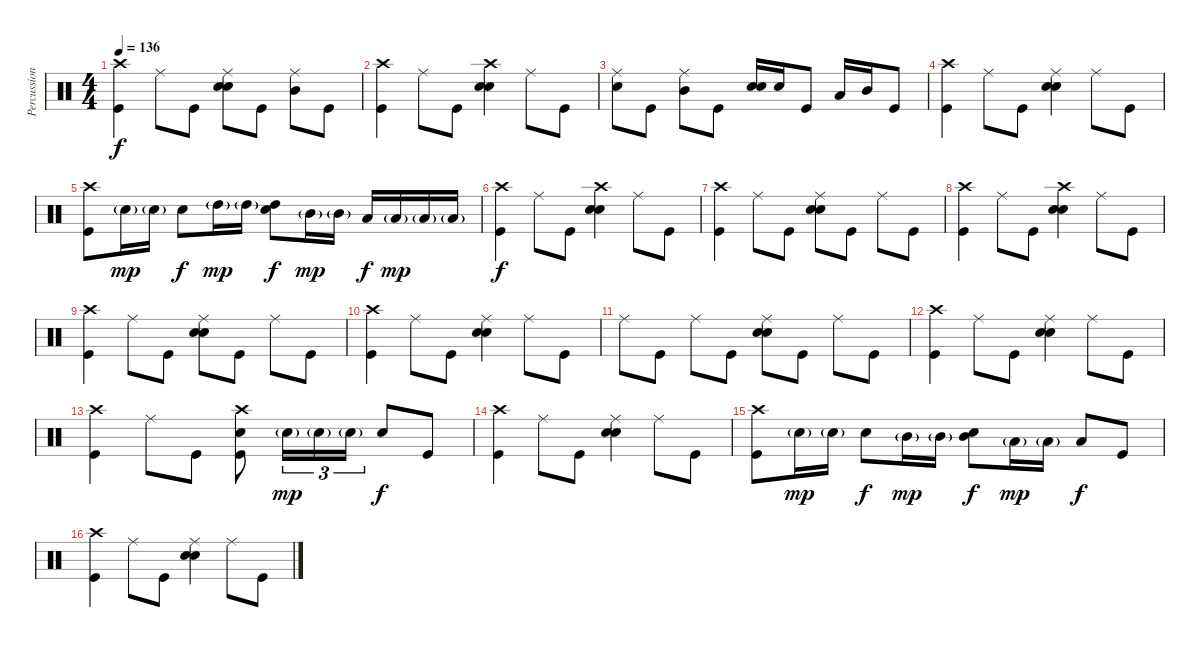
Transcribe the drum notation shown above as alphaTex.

\track ("Percussion" "Percussion") {instrument percussion}
\staff {score}
\articulation defaults
\ts (4 4)
\tempo 136
\clef neutral
\ks c
("Crash high (hit)" "Kick (hit)").4{dy f} "Ride (middle)".8 "Kick (hit)".8 ("Hand Clap (hit)" "Ride (middle)" "Snare (hit) 2").8 "Kick (hit)".8 ("Ride (middle)" "Mid Tom (hit)").8 "Kick (hit)".8 |
("Crash high (hit)" "Kick (hit)").4 "Ride (middle)".8 "Kick (hit)".8 ("Hand Clap (hit)" "Crash high (hit)" "Snare (hit) 2").4 "Ride (middle)".8 "Kick (hit)".8 |
("Ride (middle)" "Snare (hit) 2").8 "Kick (hit)".8 ("Ride (middle)" "Mid Tom (hit)").8 "Kick (hit)".8 ("Hand Clap (hit)" "Snare (hit) 2").16 "Snare (hit) 2".16 "Kick (hit)".8 "Low Floor Tom (hit)".16 "Mid Tom (hit)".16 "Kick (hit)".8 |
("Crash high (hit)" "Kick (hit)").4 "Ride (middle)".8 "Kick (hit)".8 ("Hand Clap (hit)" "Ride (middle)" "Snare (hit) 2").4 "Ride (middle)".8 "Kick (hit)".8 |
("Crash high (hit)" "Kick (hit)").8 "Snare (hit) 2"{g}.16{dy mp} "Snare (hit) 2"{g}.16 "Snare (hit) 2".8{dy f} "High Tom (hit)"{g}.16{dy mp} "High Tom (hit)"{g}.16 ("Hand Clap (hit)" "High Tom (hit)").8{dy f} "Mid Tom (hit)"{g}.16{dy mp} "Mid Tom (hit)"{g}.16 "Low Floor Tom (hit)".16{dy f} "Low Floor Tom (hit)"{g}.16{dy mp} "Low Floor Tom (hit)"{g}.16 "Low Floor Tom (hit)"{g}.16 |
("Crash high (hit)" "Kick (hit)").4{dy f} "Ride (middle)".8 "Kick (hit)".8 ("Hand Clap (hit)" "Crash high (hit)" "Snare (hit) 2").4 "Ride (middle)".8 "Kick (hit)".8 |
("Crash high (hit)" "Kick (hit)").4 "Ride (middle)".8 "Kick (hit)".8 ("Hand Clap (hit)" "Ride (middle)" "Snare (hit) 2").8 "Kick (hit)".8 "Ride (middle)".8 "Kick (hit)".8 |
("Crash high (hit)" "Kick (hit)").4 "Ride (middle)".8 "Kick (hit)".8 ("Hand Clap (hit)" "Crash high (hit)" "Snare (hit) 2").4 "Ride (middle)".8 "Kick (hit)".8 |
("Crash high (hit)" "Kick (hit)").4 "Ride (middle)".8 "Kick (hit)".8 ("Hand Clap (hit)" "Ride (middle)" "Snare (hit) 2").8 "Kick (hit)".8 "Ride (middle)".8 "Kick (hit)".8 |
("Crash high (hit)" "Kick (hit)").4 "Ride (middle)".8 "Kick (hit)".8 ("Hand Clap (hit)" "Ride (middle)" "Snare (hit) 2").4 "Ride (middle)".8 "Kick (hit)".8 |
"Ride (middle)".8 "Kick (hit)".8 "Ride (middle)".8 "Kick (hit)".8 ("Hand Clap (hit)" "Ride (middle)" "Snare (hit) 2").8 "Kick (hit)".8 "Ride (middle)".8 "Kick (hit)".8 |
("Crash high (hit)" "Kick (hit)").4 "Ride (middle)".8 "Kick (hit)".8 ("Hand Clap (hit)" "Ride (middle)" "Snare (hit) 2").4 "Ride (middle)".8 "Kick (hit)".8 |
("Crash high (hit)" "Kick (hit)").4 "Ride (middle)".8 "Kick (hit)".8 ("Hand Clap (hit)" "Crash high (hit)" "Kick (hit)").8 "Snare (hit) 2"{g}.16{tu (3 2) dy mp} "Snare (hit) 2"{g}.16{tu (3 2)} "Snare (hit) 2"{g}.16{tu (3 2)} "Snare (hit) 2".8{dy f} "Kick (hit)".8 |
("Crash high (hit)" "Kick (hit)").4 "Ride (middle)".8 "Kick (hit)".8 ("Hand Clap (hit)" "Ride (middle)" "Snare (hit) 2").4 "Ride (middle)".8 "Kick (hit)".8 |
("Crash high (hit)" "Kick (hit)").8 "Snare (hit) 2"{g}.16{dy mp} "Snare (hit) 2"{g}.16 "Snare (hit) 2".8{dy f} "Mid Tom (hit)"{g}.16{dy mp} "Mid Tom (hit)"{g}.16 ("Hand Clap (hit)" "Mid Tom (hit)").8{dy f} "Low Floor Tom (hit)"{g}.16{dy mp} "Low Floor Tom (hit)"{g}.16 "Low Floor Tom (hit)".8{dy f} "Kick (hit)".8 |
("Crash high (hit)" "Kick (hit)").4 "Ride (middle)".8 "Kick (hit)".8 ("Hand Clap (hit)" "Ride (middle)" "Snare (hit) 2").4 "Ride (middle)".8 "Kick (hit)".8
